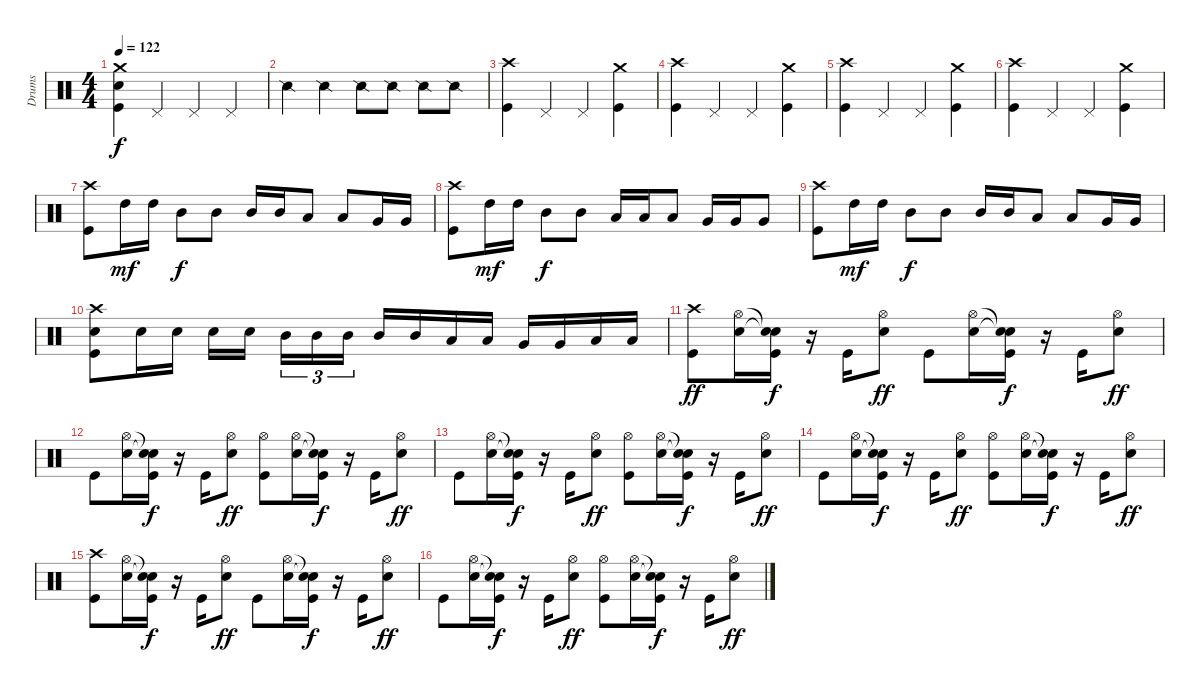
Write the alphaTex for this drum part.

\track ("Drums" "Drums") {instrument percussion}
\staff {score}
\articulation defaults
\ts (4 4)
\tempo 122
\clef neutral
\ks c
("Crash medium (hit)" "Electric Snare (hit)" "Kick (hit)").4{dy f} "Pedal Hi-Hat (hit)".4 "Pedal Hi-Hat (hit)".4 "Pedal Hi-Hat (hit)".4 |
"Snare (side stick) 2".4 "Snare (side stick) 2".4 "Snare (side stick) 2".8 "Snare (side stick) 2".8 "Snare (side stick) 2".8 "Snare (side stick) 2".8 |
("Crash high (hit)" "Kick (hit)").4 "Pedal Hi-Hat (hit)".4 "Pedal Hi-Hat (hit)".4 ("Crash medium (hit)" "Kick (hit)").4 |
("Crash high (hit)" "Kick (hit)").4 "Pedal Hi-Hat (hit)".4 "Pedal Hi-Hat (hit)".4 ("Crash medium (hit)" "Kick (hit)").4 |
("Crash high (hit)" "Kick (hit)").4 "Pedal Hi-Hat (hit)".4 "Pedal Hi-Hat (hit)".4 ("Crash medium (hit)" "Kick (hit)").4 |
("Crash high (hit)" "Kick (hit)").4 "Pedal Hi-Hat (hit)".4 "Pedal Hi-Hat (hit)".4 ("Crash medium (hit)" "Kick (hit)").4 |
("Crash high (hit)" "Kick (hit)").8 "High Tom (hit)".16{dy mf} "High Tom (hit)".16 "Mid Tom (hit)".8{dy f} "Mid Tom (hit)".8 "Mid Tom (hit)".16 "Mid Tom (hit)".16 "Low Tom (hit)".8 "Low Tom (hit)".8 "Very Low Tom (hit)".16 "Very Low Tom (hit)".16 |
("Crash high (hit)" "Kick (hit)").8 "High Tom (hit)".16{dy mf} "High Tom (hit)".16 "Mid Tom (hit)".8{dy f} "Mid Tom (hit)".8 "Low Tom (hit)".16 "Low Tom (hit)".16 "Low Tom (hit)".8 "Very Low Tom (hit)".16 "Very Low Tom (hit)".16 "Very Low Tom (hit)".8 |
("Crash high (hit)" "Kick (hit)").8 "High Tom (hit)".16{dy mf} "High Tom (hit)".16 "Mid Tom (hit)".8{dy f} "Mid Tom (hit)".8 "Mid Tom (hit)".16 "Mid Tom (hit)".16 "Low Tom (hit)".8 "Low Tom (hit)".8 "Very Low Tom (hit)".16 "Very Low Tom (hit)".16 |
("Crash high (hit)" "Electric Snare (hit)" "Kick (hit)").8 "Electric Snare (hit)".16 "Electric Snare (hit)".16 "Electric Snare (hit)".16 "Electric Snare (hit)".16 "Mid Tom (hit)".16{tu (3 2)} "Mid Tom (hit)".16{tu (3 2)} "Mid Tom (hit)".16{tu (3 2)} "Mid Tom (hit)".16 "Mid Tom (hit)".16 "Low Tom (hit)".16 "Low Tom (hit)".16 "Very Low Tom (hit)".16 "Very Low Tom (hit)".16 "Low Floor Tom (hit)".16 "Low Floor Tom (hit)".16 |
("Crash high (hit)" "Kick (hit)").8{dy ff} ("Hi-Hat (open)" "Electric Snare (hit)").16 ("Snare (hit)"{t} "Snare (hit)"{t} "Kick (hit)").16{dy f} r.16 "Kick (hit)".16 ("Hi-Hat (open)" "Electric Snare (hit)").8{dy ff} "Kick (hit)".8 ("Hi-Hat (open)" "Electric Snare (hit)").16 ("Snare (hit)"{t} "Snare (hit)"{t} "Kick (hit)").16{dy f} r.16 "Kick (hit)".16 ("Hi-Hat (open)" "Electric Snare (hit)").8{dy ff} |
"Kick (hit)".8 ("Hi-Hat (open)" "Electric Snare (hit)").16 ("Snare (hit)"{t} "Snare (hit)"{t} "Kick (hit)").16{dy f} r.16 "Kick (hit)".16 ("Hi-Hat (open)" "Electric Snare (hit)").8{dy ff} ("Hi-Hat (open)" "Kick (hit)").8 ("Hi-Hat (open)" "Electric Snare (hit)").16 ("Snare (hit)"{t} "Snare (hit)"{t} "Kick (hit)").16{dy f} r.16 "Kick (hit)".16 ("Hi-Hat (open)" "Electric Snare (hit)").8{dy ff} |
"Kick (hit)".8 ("Hi-Hat (open)" "Electric Snare (hit)").16 ("Snare (hit)"{t} "Snare (hit)"{t} "Kick (hit)").16{dy f} r.16 "Kick (hit)".16 ("Hi-Hat (open)" "Electric Snare (hit)").8{dy ff} ("Hi-Hat (open)" "Kick (hit)").8 ("Hi-Hat (open)" "Electric Snare (hit)").16 ("Snare (hit)"{t} "Snare (hit)"{t} "Kick (hit)").16{dy f} r.16 "Kick (hit)".16 ("Hi-Hat (open)" "Electric Snare (hit)").8{dy ff} |
"Kick (hit)".8 ("Hi-Hat (open)" "Electric Snare (hit)").16 ("Snare (hit)"{t} "Snare (hit)"{t} "Kick (hit)").16{dy f} r.16 "Kick (hit)".16 ("Hi-Hat (open)" "Electric Snare (hit)").8{dy ff} ("Hi-Hat (open)" "Kick (hit)").8 ("Hi-Hat (open)" "Electric Snare (hit)").16 ("Snare (hit)"{t} "Snare (hit)"{t} "Kick (hit)").16{dy f} r.16 "Kick (hit)".16 ("Hi-Hat (open)" "Electric Snare (hit)").8{dy ff} |
("Crash high (hit)" "Kick (hit)").8 ("Hi-Hat (open)" "Electric Snare (hit)").16 ("Snare (hit)"{t} "Snare (hit)"{t} "Kick (hit)").16{dy f} r.16 "Kick (hit)".16 ("Hi-Hat (open)" "Electric Snare (hit)").8{dy ff} "Kick (hit)".8 ("Hi-Hat (open)" "Electric Snare (hit)").16 ("Snare (hit)"{t} "Snare (hit)"{t} "Kick (hit)").16{dy f} r.16 "Kick (hit)".16 ("Hi-Hat (open)" "Electric Snare (hit)").8{dy ff} |
"Kick (hit)".8 ("Hi-Hat (open)" "Electric Snare (hit)").16 ("Snare (hit)"{t} "Snare (hit)"{t} "Kick (hit)").16{dy f} r.16 "Kick (hit)".16 ("Hi-Hat (open)" "Electric Snare (hit)").8{dy ff} ("Hi-Hat (open)" "Kick (hit)").8 ("Hi-Hat (open)" "Electric Snare (hit)").16 ("Snare (hit)"{t} "Snare (hit)"{t} "Kick (hit)").16{dy f} r.16 "Kick (hit)".16 ("Hi-Hat (open)" "Electric Snare (hit)").8{dy ff}
